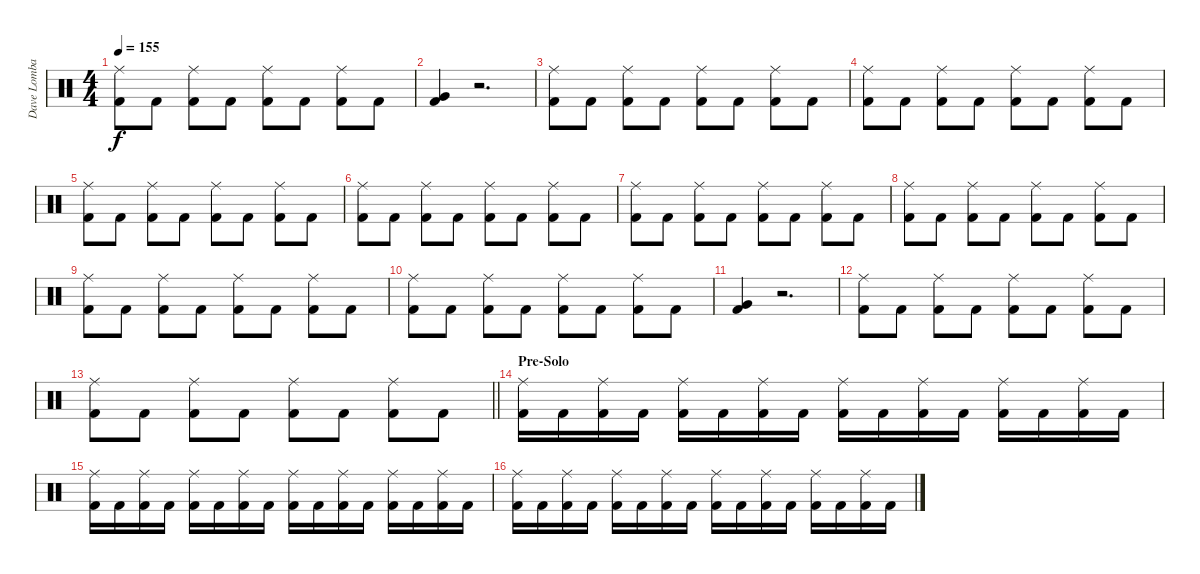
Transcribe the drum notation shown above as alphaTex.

\track ("Dave Lombardo (Drums)" "Dave Lomba") {instrument percussion}
\staff {score}
\articulation defaults
\ts (4 4)
\tempo 155
\clef neutral
\ks c
("Ride (middle)" "Kick (hit) 2").8{dy f} "Kick (hit) 2".8 ("Ride (middle)" "Kick (hit) 2").8 "Kick (hit) 2".8 ("Ride (middle)" "Kick (hit) 2").8 "Kick (hit) 2".8 ("Ride (middle)" "Kick (hit) 2").8 "Kick (hit) 2".8 |
("Very Low Tom (hit)" "Kick (hit) 2").4 r.2{d} |
("Ride (middle)" "Kick (hit) 2").8 "Kick (hit) 2".8 ("Ride (middle)" "Kick (hit) 2").8 "Kick (hit) 2".8 ("Ride (middle)" "Kick (hit) 2").8 "Kick (hit) 2".8 ("Ride (middle)" "Kick (hit) 2").8 "Kick (hit) 2".8 |
("Ride (middle)" "Kick (hit) 2").8 "Kick (hit) 2".8 ("Ride (middle)" "Kick (hit) 2").8 "Kick (hit) 2".8 ("Ride (middle)" "Kick (hit) 2").8 "Kick (hit) 2".8 ("Ride (middle)" "Kick (hit) 2").8 "Kick (hit) 2".8 |
("Ride (middle)" "Kick (hit) 2").8 "Kick (hit) 2".8 ("Ride (middle)" "Kick (hit) 2").8 "Kick (hit) 2".8 ("Ride (middle)" "Kick (hit) 2").8 "Kick (hit) 2".8 ("Ride (middle)" "Kick (hit) 2").8 "Kick (hit) 2".8 |
("Ride (middle)" "Kick (hit) 2").8 "Kick (hit) 2".8 ("Ride (middle)" "Kick (hit) 2").8 "Kick (hit) 2".8 ("Ride (middle)" "Kick (hit) 2").8 "Kick (hit) 2".8 ("Ride (middle)" "Kick (hit) 2").8 "Kick (hit) 2".8 |
("Ride (middle)" "Kick (hit) 2").8 "Kick (hit) 2".8 ("Ride (middle)" "Kick (hit) 2").8 "Kick (hit) 2".8 ("Ride (middle)" "Kick (hit) 2").8 "Kick (hit) 2".8 ("Ride (middle)" "Kick (hit) 2").8 "Kick (hit) 2".8 |
("Ride (middle)" "Kick (hit) 2").8 "Kick (hit) 2".8 ("Ride (middle)" "Kick (hit) 2").8 "Kick (hit) 2".8 ("Ride (middle)" "Kick (hit) 2").8 "Kick (hit) 2".8 ("Ride (middle)" "Kick (hit) 2").8 "Kick (hit) 2".8 |
("Ride (middle)" "Kick (hit) 2").8 "Kick (hit) 2".8 ("Ride (middle)" "Kick (hit) 2").8 "Kick (hit) 2".8 ("Ride (middle)" "Kick (hit) 2").8 "Kick (hit) 2".8 ("Ride (middle)" "Kick (hit) 2").8 "Kick (hit) 2".8 |
("Ride (middle)" "Kick (hit) 2").8 "Kick (hit) 2".8 ("Ride (middle)" "Kick (hit) 2").8 "Kick (hit) 2".8 ("Ride (middle)" "Kick (hit) 2").8 "Kick (hit) 2".8 ("Ride (middle)" "Kick (hit) 2").8 "Kick (hit) 2".8 |
("Very Low Tom (hit)" "Kick (hit) 2").4 r.2{d} |
("Ride (middle)" "Kick (hit) 2").8 "Kick (hit) 2".8 ("Ride (middle)" "Kick (hit) 2").8 "Kick (hit) 2".8 ("Ride (middle)" "Kick (hit) 2").8 "Kick (hit) 2".8 ("Ride (middle)" "Kick (hit) 2").8 "Kick (hit) 2".8 |
\barLineRight lightlight
("Ride (middle)" "Kick (hit) 2").8 "Kick (hit) 2".8 ("Ride (middle)" "Kick (hit) 2").8 "Kick (hit) 2".8 ("Ride (middle)" "Kick (hit) 2").8 "Kick (hit) 2".8 ("Ride (middle)" "Kick (hit) 2").8 "Kick (hit) 2".8 |
\section ("" "Pre-Solo")
("Ride (middle)" "Kick (hit) 2").16 "Kick (hit) 2".16 ("Ride (middle)" "Kick (hit) 2").16 "Kick (hit) 2".16 ("Ride (middle)" "Kick (hit) 2").16 "Kick (hit) 2".16 ("Ride (middle)" "Kick (hit) 2").16 "Kick (hit) 2".16 ("Ride (middle)" "Kick (hit) 2").16 "Kick (hit) 2".16 ("Ride (middle)" "Kick (hit) 2").16 "Kick (hit) 2".16 ("Ride (middle)" "Kick (hit) 2").16 "Kick (hit) 2".16 ("Ride (middle)" "Kick (hit) 2").16 "Kick (hit) 2".16 |
("Ride (middle)" "Kick (hit) 2").16 "Kick (hit) 2".16 ("Ride (middle)" "Kick (hit) 2").16 "Kick (hit) 2".16 ("Ride (middle)" "Kick (hit) 2").16 "Kick (hit) 2".16 ("Ride (middle)" "Kick (hit) 2").16 "Kick (hit) 2".16 ("Ride (middle)" "Kick (hit) 2").16 "Kick (hit) 2".16 ("Ride (middle)" "Kick (hit) 2").16 "Kick (hit) 2".16 ("Ride (middle)" "Kick (hit) 2").16 "Kick (hit) 2".16 ("Ride (middle)" "Kick (hit) 2").16 "Kick (hit) 2".16 |
("Ride (middle)" "Kick (hit) 2").16 "Kick (hit) 2".16 ("Ride (middle)" "Kick (hit) 2").16 "Kick (hit) 2".16 ("Ride (middle)" "Kick (hit) 2").16 "Kick (hit) 2".16 ("Ride (middle)" "Kick (hit) 2").16 "Kick (hit) 2".16 ("Ride (middle)" "Kick (hit) 2").16 "Kick (hit) 2".16 ("Ride (middle)" "Kick (hit) 2").16 "Kick (hit) 2".16 ("Ride (middle)" "Kick (hit) 2").16 "Kick (hit) 2".16 ("Ride (middle)" "Kick (hit) 2").16 "Kick (hit) 2".16
